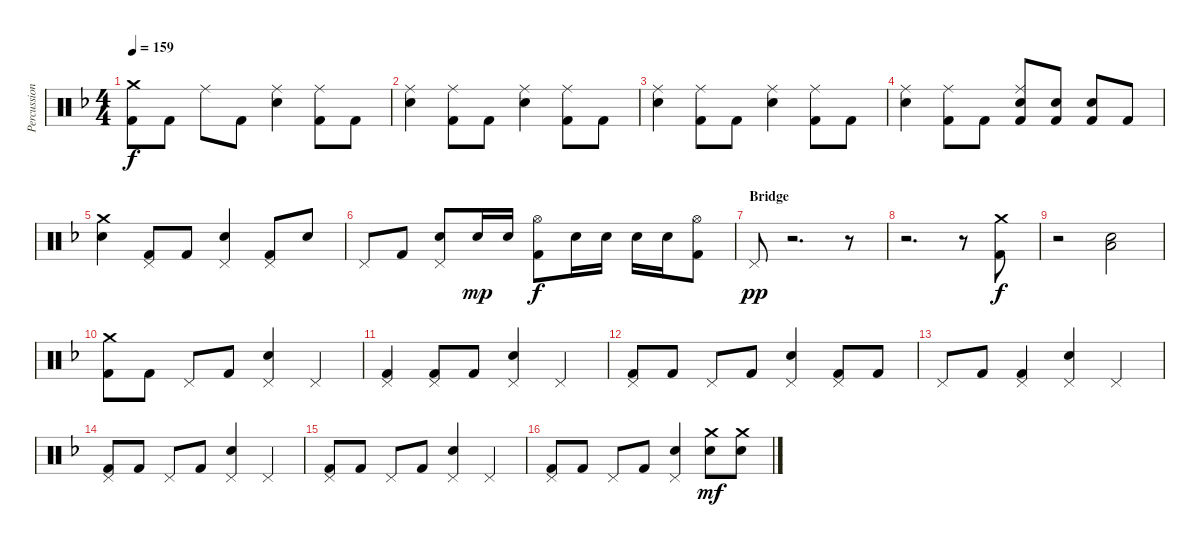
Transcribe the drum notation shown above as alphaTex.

\track ("Percussion" "Percussion") {instrument percussion}
\staff {score}
\articulation defaults
\ts (4 4)
\tempo 159
\clef neutral
\ks f
("Crash medium (hit)" "Kick (hit) 2").8{dy f} "Kick (hit) 2".8 "Ride (middle)".8 "Kick (hit) 2".8 ("Ride (middle)" "Electric Snare (hit)").4 ("Ride (middle)" "Kick (hit) 2").8 "Kick (hit) 2".8 |
("Ride (middle)" "Electric Snare (hit)").4 ("Ride (middle)" "Kick (hit) 2").8 "Kick (hit) 2".8 ("Ride (middle)" "Electric Snare (hit)").4 ("Ride (middle)" "Kick (hit) 2").8 "Kick (hit) 2".8 |
("Ride (middle)" "Electric Snare (hit)").4 ("Ride (middle)" "Kick (hit) 2").8 "Kick (hit) 2".8 ("Ride (middle)" "Electric Snare (hit)").4 ("Ride (middle)" "Kick (hit) 2").8 "Kick (hit) 2".8 |
("Ride (middle)" "Electric Snare (hit)").4 ("Ride (middle)" "Kick (hit) 2").8 "Kick (hit) 2".8 ("Ride (middle)" "Electric Snare (hit)" "Kick (hit) 2").8 ("Electric Snare (hit)" "Kick (hit) 2").8 ("Electric Snare (hit)" "Kick (hit) 2").8 "Kick (hit) 2".8 |
("Crash medium (hit)" "Electric Snare (hit)").4 ("Pedal Hi-Hat (hit)" "Kick (hit) 2").8 "Kick (hit) 2".8 ("Pedal Hi-Hat (hit)" "Electric Snare (hit)").4 ("Pedal Hi-Hat (hit)" "Kick (hit) 2").8 "Electric Snare (hit)".8 |
"Pedal Hi-Hat (hit)".8 "Kick (hit) 2".8 ("Pedal Hi-Hat (hit)" "Electric Snare (hit)").8 "Electric Snare (hit)".16{dy mp} "Electric Snare (hit)".16 ("Hi-Hat (open)" "Kick (hit) 2").8{dy f} "Electric Snare (hit)".16 "Electric Snare (hit)".16 "Electric Snare (hit)".16 "Electric Snare (hit)".16 ("Hi-Hat (open)" "Kick (hit) 2").8 |
\section ("" "Bridge")
"Pedal Hi-Hat (hit)".8{dy pp} r.2{d} r.8 |
r.2{d} r.8 ("Crash medium (hit)" "Kick (hit) 2").8{dy f} |
r.2 ("Low Tom (hit)" "Electric Snare (hit)").2 |
("Crash medium (hit)" "Kick (hit) 2").8 "Kick (hit) 2".8 "Pedal Hi-Hat (hit)".8 "Kick (hit) 2".8 ("Pedal Hi-Hat (hit)" "Electric Snare (hit)").4 "Pedal Hi-Hat (hit)".4 |
("Pedal Hi-Hat (hit)" "Kick (hit) 2").4 ("Pedal Hi-Hat (hit)" "Kick (hit) 2").8 "Kick (hit) 2".8 ("Pedal Hi-Hat (hit)" "Electric Snare (hit)").4 "Pedal Hi-Hat (hit)".4 |
("Pedal Hi-Hat (hit)" "Kick (hit) 2").8 "Kick (hit) 2".8 "Pedal Hi-Hat (hit)".8 "Kick (hit) 2".8 ("Pedal Hi-Hat (hit)" "Electric Snare (hit)").4 ("Pedal Hi-Hat (hit)" "Kick (hit) 2").8 "Kick (hit) 2".8 |
"Pedal Hi-Hat (hit)".8 "Kick (hit) 2".8 ("Pedal Hi-Hat (hit)" "Kick (hit) 2").4 ("Pedal Hi-Hat (hit)" "Electric Snare (hit)").4 "Pedal Hi-Hat (hit)".4 |
("Pedal Hi-Hat (hit)" "Kick (hit) 2").8 "Kick (hit) 2".8 "Pedal Hi-Hat (hit)".8 "Kick (hit) 2".8 ("Pedal Hi-Hat (hit)" "Electric Snare (hit)").4 "Pedal Hi-Hat (hit)".4 |
("Pedal Hi-Hat (hit)" "Kick (hit) 2").8 "Kick (hit) 2".8 "Pedal Hi-Hat (hit)".8 "Kick (hit) 2".8 ("Pedal Hi-Hat (hit)" "Electric Snare (hit)").4 "Pedal Hi-Hat (hit)".4 |
("Pedal Hi-Hat (hit)" "Kick (hit) 2").8 "Kick (hit) 2".8 "Pedal Hi-Hat (hit)".8 "Kick (hit) 2".8 ("Pedal Hi-Hat (hit)" "Electric Snare (hit)").4 ("Crash medium (hit)" "Electric Snare (hit)").8{dy mf} ("Crash medium (hit)" "Electric Snare (hit)").8
